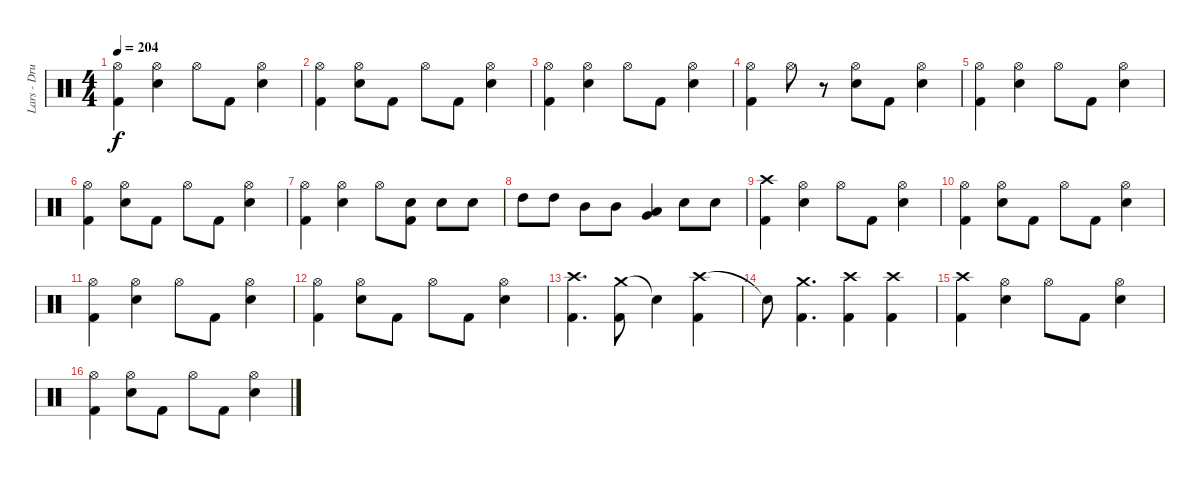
\track ("Lars - Drums" "Lars - Dru") {instrument percussion}
\staff {score}
\articulation defaults
\ts (4 4)
\tempo 204
\clef neutral
\ks c
("Hi-Hat (open)" "Kick (hit) 2").4{dy f} ("Hi-Hat (open)" "Electric Snare (hit)").4 "Hi-Hat (open)".8 "Kick (hit) 2".8 ("Hi-Hat (open)" "Electric Snare (hit)").4 |
("Hi-Hat (open)" "Kick (hit) 2").4 ("Hi-Hat (open)" "Electric Snare (hit)").8 "Kick (hit) 2".8 "Hi-Hat (open)".8 "Kick (hit) 2".8 ("Hi-Hat (open)" "Electric Snare (hit)").4 |
("Hi-Hat (open)" "Kick (hit) 2").4 ("Hi-Hat (open)" "Electric Snare (hit)").4 "Hi-Hat (open)".8 "Kick (hit) 2".8 ("Hi-Hat (open)" "Electric Snare (hit)").4 |
("Hi-Hat (open)" "Kick (hit) 2").4 "Hi-Hat (open)".8 r.8 ("Hi-Hat (open)" "Electric Snare (hit)").8 "Kick (hit) 2".8 ("Hi-Hat (open)" "Electric Snare (hit)").4 |
("Hi-Hat (open)" "Kick (hit) 2").4 ("Hi-Hat (open)" "Electric Snare (hit)").4 "Hi-Hat (open)".8 "Kick (hit) 2".8 ("Hi-Hat (open)" "Electric Snare (hit)").4 |
("Hi-Hat (open)" "Kick (hit) 2").4 ("Hi-Hat (open)" "Electric Snare (hit)").8 "Kick (hit) 2".8 "Hi-Hat (open)".8 "Kick (hit) 2".8 ("Hi-Hat (open)" "Electric Snare (hit)").4 |
("Hi-Hat (open)" "Kick (hit) 2").4 ("Hi-Hat (open)" "Electric Snare (hit)").4 "Hi-Hat (open)".8 ("Electric Snare (hit)" "Kick (hit) 2").8 "Electric Snare (hit)".8 "Electric Snare (hit)".8 |
"High Tom (hit)".8 "High Tom (hit)".8 "Mid Tom (hit)".8 "Mid Tom (hit)".8 ("Low Tom (hit)" "Very Low Tom (hit)").4 "Electric Snare (hit)".8 "Electric Snare (hit)".8 |
("Crash high (hit)" "Kick (hit) 2").4 ("Hi-Hat (open)" "Electric Snare (hit)").4 "Hi-Hat (open)".8 "Kick (hit) 2".8 ("Hi-Hat (open)" "Electric Snare (hit)").4 |
("Hi-Hat (open)" "Kick (hit) 2").4 ("Hi-Hat (open)" "Electric Snare (hit)").8 "Kick (hit) 2".8 "Hi-Hat (open)".8 "Kick (hit) 2".8 ("Hi-Hat (open)" "Electric Snare (hit)").4 |
("Hi-Hat (open)" "Kick (hit) 2").4 ("Hi-Hat (open)" "Electric Snare (hit)").4 "Hi-Hat (open)".8 "Kick (hit) 2".8 ("Hi-Hat (open)" "Electric Snare (hit)").4 |
("Hi-Hat (open)" "Kick (hit) 2").4 ("Hi-Hat (open)" "Electric Snare (hit)").8 "Kick (hit) 2".8 "Hi-Hat (open)".8 "Kick (hit) 2".8 ("Hi-Hat (open)" "Electric Snare (hit)").4 |
("Crash high (hit)" "Kick (hit) 2").4{d} ("Crash medium (hit)" "Kick (hit) 2").8 "Snare (hit)"{t}.4 ("Crash high (hit)" "Kick (hit) 2").4 |
"Snare (hit)"{t}.8 ("Crash medium (hit)" "Kick (hit) 2").4{d} ("Crash high (hit)" "Kick (hit) 2").4 ("Crash high (hit)" "Kick (hit) 2").4 |
("Crash high (hit)" "Kick (hit) 2").4 ("Hi-Hat (open)" "Electric Snare (hit)").4 "Hi-Hat (open)".8 "Kick (hit) 2".8 ("Hi-Hat (open)" "Electric Snare (hit)").4 |
("Hi-Hat (open)" "Kick (hit) 2").4 ("Hi-Hat (open)" "Electric Snare (hit)").8 "Kick (hit) 2".8 "Hi-Hat (open)".8 "Kick (hit) 2".8 ("Hi-Hat (open)" "Electric Snare (hit)").4
